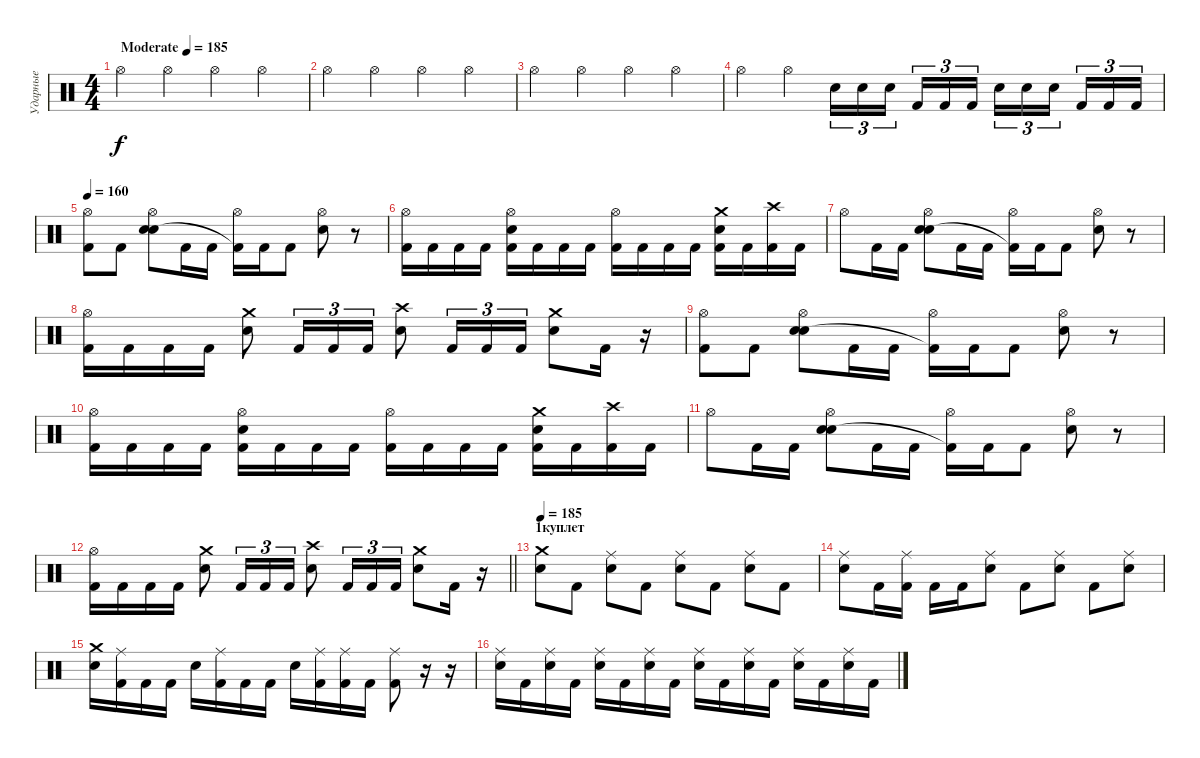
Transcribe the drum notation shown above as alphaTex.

\track ("Ударные" "Ударные") {instrument percussion}
\staff {score}
\articulation defaults
\ts (4 4)
\tempo (185 "Moderate")
\tempo 160
\tempo (185 "Moderate")
\clef neutral
\ks c "Hi-Hat (open)".4{dy f} "Hi-Hat (open)".4 "Hi-Hat (open)".4 "Hi-Hat (open)".4
|
"Hi-Hat (open)".4 "Hi-Hat (open)".4 "Hi-Hat (open)".4 "Hi-Hat (open)".4 |
"Hi-Hat (open)".4 "Hi-Hat (open)".4 "Hi-Hat (open)".4 "Hi-Hat (open)".4 |
"Hi-Hat (open)".4 "Hi-Hat (open)".4 "Electric Snare (hit)".16{tu (3 2)} "Electric Snare (hit)".16{tu (3 2)} "Electric Snare (hit)".16{tu (3 2) beam splitsecondary} "Kick (hit) 2".16{tu (3 2)} "Kick (hit) 2".16{tu (3 2)} "Kick (hit) 2".16{tu (3 2)} "Electric Snare (hit)".16{tu (3 2)} "Electric Snare (hit)".16{tu (3 2)} "Electric Snare (hit)".16{tu (3 2) beam splitsecondary} "Kick (hit) 2".16{tu (3 2)} "Kick (hit) 2".16{tu (3 2)} "Kick (hit) 2".16{tu (3 2)} |
\tempo 160
("Hi-Hat (open)" "Kick (hit) 2").8 "Kick (hit) 2".8 ("Hi-Hat (open)" "Electric Snare (hit)" "Electric Snare (hit)").8 "Kick (hit) 2".16 "Kick (hit) 2".16 ("Hi-Hat (open)" "Kick (hit) 2"{t}).16 "Kick (hit) 2".16 "Kick (hit) 2".8 ("Hi-Hat (open)" "Electric Snare (hit)").8 r.8 |
("Hi-Hat (open)" "Kick (hit) 2").16 "Kick (hit) 2".16 "Kick (hit) 2".16 "Kick (hit) 2".16 ("Hi-Hat (open)" "Electric Snare (hit)" "Kick (hit) 2").16 "Kick (hit) 2".16 "Kick (hit) 2".16 "Kick (hit) 2".16 ("Hi-Hat (open)" "Kick (hit) 2").16 "Kick (hit) 2".16 "Kick (hit) 2".16 "Kick (hit) 2".16 ("Crash medium (hit)" "Electric Snare (hit)" "Kick (hit) 2").16 "Kick (hit) 2".16 ("Crash high (hit)" "Kick (hit) 2").16 "Kick (hit) 2".16 |
"Hi-Hat (open)".8 "Kick (hit) 2".16 "Kick (hit) 2".16 ("Hi-Hat (open)" "Electric Snare (hit)" "Electric Snare (hit)").8 "Kick (hit) 2".16 "Kick (hit) 2".16 ("Hi-Hat (open)" "Kick (hit) 2"{t}).16 "Kick (hit) 2".16 "Kick (hit) 2".8 ("Hi-Hat (open)" "Electric Snare (hit)").8 r.8 |
("Hi-Hat (open)" "Kick (hit) 2").16 "Kick (hit) 2".16 "Kick (hit) 2".16 "Kick (hit) 2".16 ("Crash medium (hit)" "Electric Snare (hit)").8 "Kick (hit) 2".16{tu (3 2)} "Kick (hit) 2".16{tu (3 2)} "Kick (hit) 2".16{tu (3 2)} ("Crash high (hit)" "Electric Snare (hit)").8 "Kick (hit) 2".16{tu (3 2)} "Kick (hit) 2".16{tu (3 2)} "Kick (hit) 2".16{tu (3 2)} ("Crash medium (hit)" "Electric Snare (hit)").8 "Kick (hit) 2".16 r.16 |
("Hi-Hat (open)" "Kick (hit) 2").8 "Kick (hit) 2".8 ("Hi-Hat (open)" "Electric Snare (hit)" "Electric Snare (hit)").8 "Kick (hit) 2".16 "Kick (hit) 2".16 ("Hi-Hat (open)" "Kick (hit) 2"{t}).16 "Kick (hit) 2".16 "Kick (hit) 2".8 ("Hi-Hat (open)" "Electric Snare (hit)").8 r.8 |
("Hi-Hat (open)" "Kick (hit) 2").16 "Kick (hit) 2".16 "Kick (hit) 2".16 "Kick (hit) 2".16 ("Hi-Hat (open)" "Electric Snare (hit)" "Kick (hit) 2").16 "Kick (hit) 2".16 "Kick (hit) 2".16 "Kick (hit) 2".16 ("Hi-Hat (open)" "Kick (hit) 2").16 "Kick (hit) 2".16 "Kick (hit) 2".16 "Kick (hit) 2".16 ("Crash medium (hit)" "Electric Snare (hit)" "Kick (hit) 2").16 "Kick (hit) 2".16 ("Crash high (hit)" "Kick (hit) 2").16 "Kick (hit) 2".16 |
"Hi-Hat (open)".8 "Kick (hit) 2".16 "Kick (hit) 2".16 ("Hi-Hat (open)" "Electric Snare (hit)" "Electric Snare (hit)").8 "Kick (hit) 2".16 "Kick (hit) 2".16 ("Hi-Hat (open)" "Kick (hit) 2"{t}).16 "Kick (hit) 2".16 "Kick (hit) 2".8 ("Hi-Hat (open)" "Electric Snare (hit)").8 r.8 |
\barLineRight lightlight
("Hi-Hat (open)" "Kick (hit) 2").16 "Kick (hit) 2".16 "Kick (hit) 2".16 "Kick (hit) 2".16 ("Crash medium (hit)" "Electric Snare (hit)").8 "Kick (hit) 2".16{tu (3 2)} "Kick (hit) 2".16{tu (3 2)} "Kick (hit) 2".16{tu (3 2)} ("Crash high (hit)" "Electric Snare (hit)").8 "Kick (hit) 2".16{tu (3 2)} "Kick (hit) 2".16{tu (3 2)} "Kick (hit) 2".16{tu (3 2)} ("Crash medium (hit)" "Electric Snare (hit)").8 "Kick (hit) 2".16 r.16 |
\section ("" "1куплет")
\tempo 185
("Crash medium (hit)" "Electric Snare (hit)").8 "Kick (hit) 2".8 ("Ride (middle)" "Electric Snare (hit)").8 "Kick (hit) 2".8 ("Ride (middle)" "Electric Snare (hit)").8 "Kick (hit) 2".8 ("Ride (middle)" "Electric Snare (hit)").8 "Kick (hit) 2".8 |
("Ride (middle)" "Electric Snare (hit)").8 "Kick (hit) 2".16 ("Ride (middle)" "Kick (hit) 2").16 "Kick (hit) 2".16 "Kick (hit) 2".16 ("Ride (middle)" "Electric Snare (hit)").8 "Kick (hit) 2".8 ("Ride (middle)" "Electric Snare (hit)").8 "Kick (hit) 2".8 ("Ride (middle)" "Electric Snare (hit)").8 |
("Crash medium (hit)" "Electric Snare (hit)").16 ("Ride (middle)" "Kick (hit) 2").16 "Kick (hit) 2".16 "Kick (hit) 2".16 "Electric Snare (hit)".16 ("Ride (middle)" "Kick (hit) 2").16 "Kick (hit) 2".16 "Kick (hit) 2".16 "Electric Snare (hit)".16 ("Ride (middle)" "Kick (hit) 2").16 ("Ride (middle)" "Kick (hit) 2").16 "Kick (hit) 2".16 ("Ride (middle)" "Kick (hit) 2").8 r.16 r.16 |
("Ride (middle)" "Electric Snare (hit)").16 "Kick (hit) 2".16 ("Ride (middle)" "Electric Snare (hit)").16 "Kick (hit) 2".16 ("Ride (middle)" "Electric Snare (hit)").16 "Kick (hit) 2".16 ("Ride (middle)" "Electric Snare (hit)").16 "Kick (hit) 2".16 ("Ride (middle)" "Electric Snare (hit)").16 "Kick (hit) 2".16 ("Ride (middle)" "Electric Snare (hit)").16 "Kick (hit) 2".16 ("Ride (middle)" "Electric Snare (hit)").16 "Kick (hit) 2".16 ("Ride (middle)" "Electric Snare (hit)").16 "Kick (hit) 2".16
